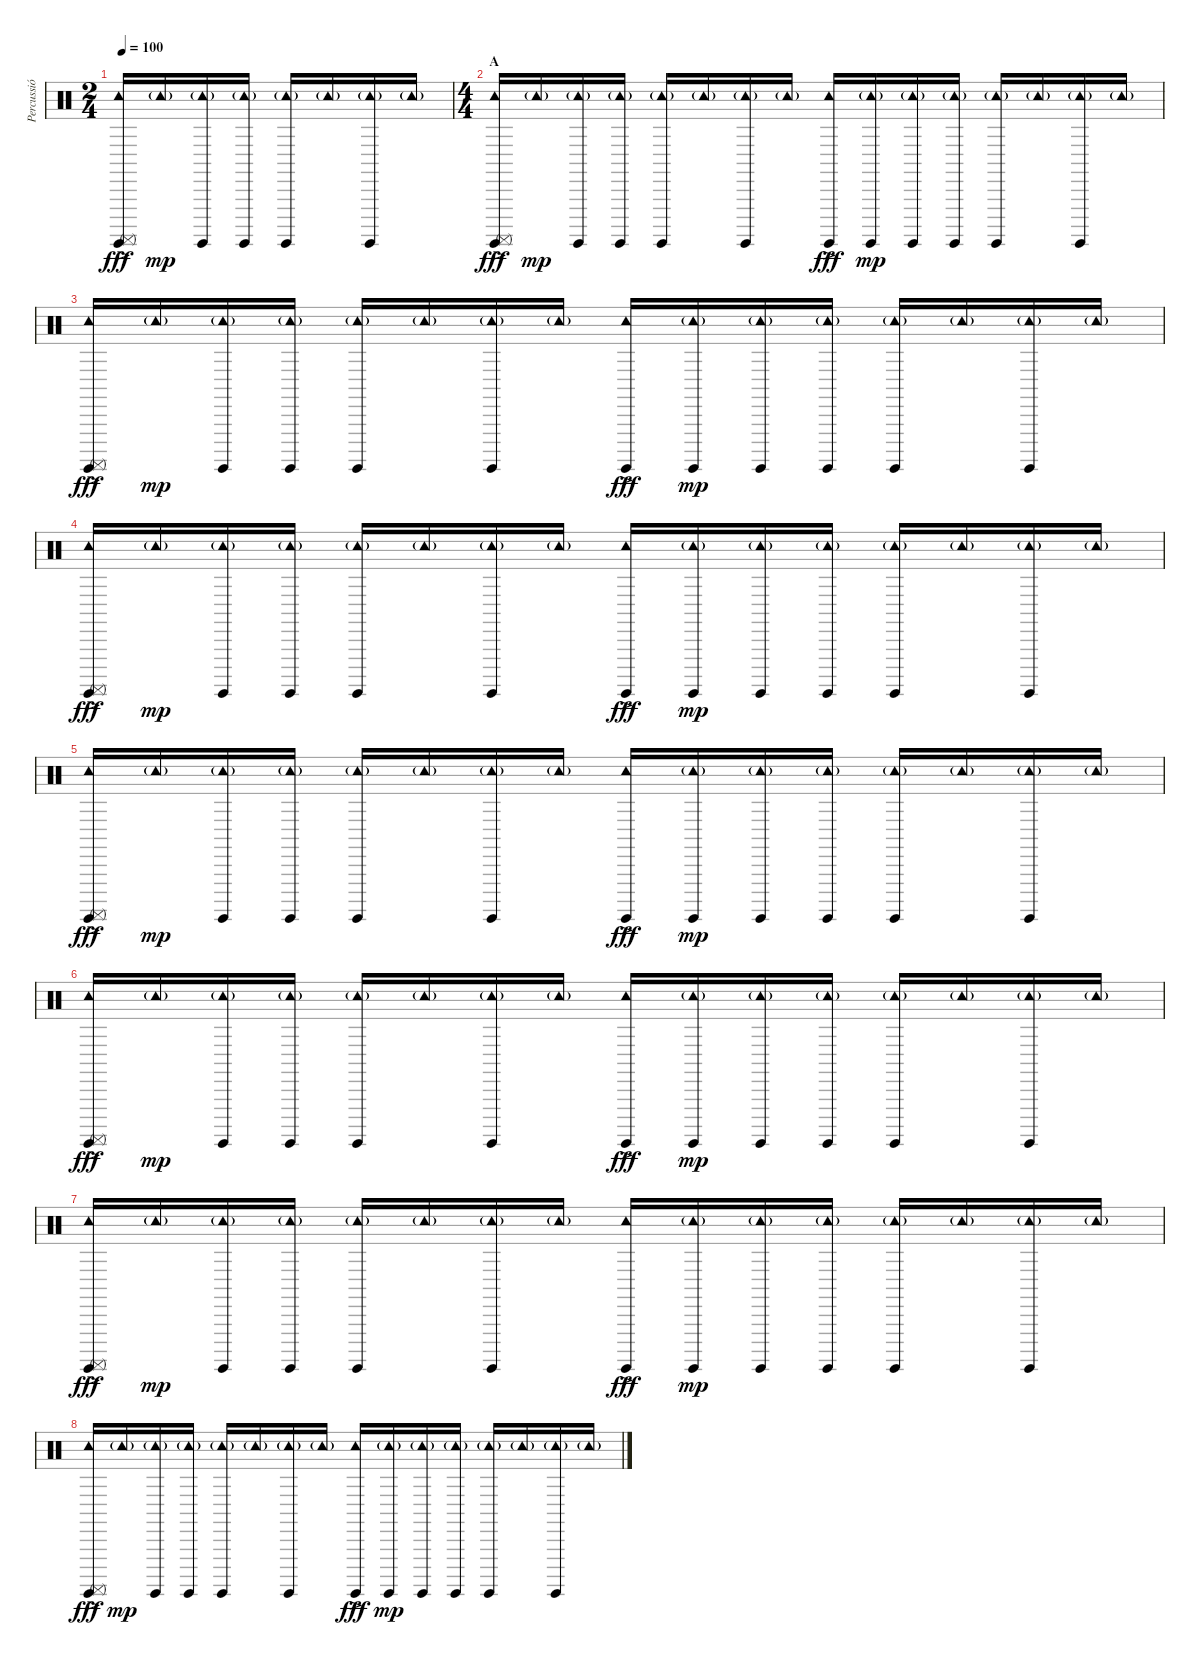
\track ("Percussió" "Percussió") {instrument percussion}
\staff {score}
\articulation defaults
\ts (2 4)
\tempo 100
\clef neutral
\ks c
("Tambourine (hit)"{ac} "Surdo (hit)" "Surdo (mute)"{ac}).16{dy fff} "Tambourine (hit)"{g}.16{dy mp} ("Tambourine (hit)"{g} "Surdo (hit)").16 ("Tambourine (hit)"{g} "Surdo (hit)").16 ("Tambourine (hit)"{g} "Surdo (hit)").16 "Tambourine (hit)"{g}.16 ("Tambourine (hit)"{g} "Surdo (hit)").16 "Tambourine (hit)"{g}.16 |
\ts (4 4)
\section ("" "A")
("Tambourine (hit)"{ac} "Surdo (hit)" "Surdo (mute)"{ac}).16{dy fff} "Tambourine (hit)"{g}.16{dy mp} ("Tambourine (hit)"{g} "Surdo (hit)").16 ("Tambourine (hit)"{g} "Surdo (hit)").16 ("Tambourine (hit)"{g} "Surdo (hit)").16 "Tambourine (hit)"{g}.16 ("Tambourine (hit)"{g} "Surdo (hit)").16 "Tambourine (hit)"{g}.16 ("Tambourine (hit)"{ac} "Surdo (hit)"{ac}).16{dy fff} ("Tambourine (hit)"{g} "Surdo (hit)").16{dy mp} ("Tambourine (hit)"{g} "Surdo (hit)").16 ("Tambourine (hit)"{g} "Surdo (hit)").16 ("Tambourine (hit)"{g} "Surdo (hit)").16 "Tambourine (hit)"{g}.16 ("Tambourine (hit)"{g} "Surdo (hit)").16 "Tambourine (hit)"{g}.16 |
("Tambourine (hit)"{ac} "Surdo (hit)" "Surdo (mute)"{ac}).16{dy fff} "Tambourine (hit)"{g}.16{dy mp} ("Tambourine (hit)"{g} "Surdo (hit)").16 ("Tambourine (hit)"{g} "Surdo (hit)").16 ("Tambourine (hit)"{g} "Surdo (hit)").16 "Tambourine (hit)"{g}.16 ("Tambourine (hit)"{g} "Surdo (hit)").16 "Tambourine (hit)"{g}.16 ("Tambourine (hit)"{ac} "Surdo (hit)"{ac}).16{dy fff} ("Tambourine (hit)"{g} "Surdo (hit)").16{dy mp} ("Tambourine (hit)"{g} "Surdo (hit)").16 ("Tambourine (hit)"{g} "Surdo (hit)").16 ("Tambourine (hit)"{g} "Surdo (hit)").16 "Tambourine (hit)"{g}.16 ("Tambourine (hit)"{g} "Surdo (hit)").16 "Tambourine (hit)"{g}.16 |
("Tambourine (hit)"{ac} "Surdo (hit)" "Surdo (mute)"{ac}).16{dy fff} "Tambourine (hit)"{g}.16{dy mp} ("Tambourine (hit)"{g} "Surdo (hit)").16 ("Tambourine (hit)"{g} "Surdo (hit)").16 ("Tambourine (hit)"{g} "Surdo (hit)").16 "Tambourine (hit)"{g}.16 ("Tambourine (hit)"{g} "Surdo (hit)").16 "Tambourine (hit)"{g}.16 ("Tambourine (hit)"{ac} "Surdo (hit)"{ac}).16{dy fff} ("Tambourine (hit)"{g} "Surdo (hit)").16{dy mp} ("Tambourine (hit)"{g} "Surdo (hit)").16 ("Tambourine (hit)"{g} "Surdo (hit)").16 ("Tambourine (hit)"{g} "Surdo (hit)").16 "Tambourine (hit)"{g}.16 ("Tambourine (hit)"{g} "Surdo (hit)").16 "Tambourine (hit)"{g}.16 |
("Tambourine (hit)"{ac} "Surdo (hit)" "Surdo (mute)"{ac}).16{dy fff} "Tambourine (hit)"{g}.16{dy mp} ("Tambourine (hit)"{g} "Surdo (hit)").16 ("Tambourine (hit)"{g} "Surdo (hit)").16 ("Tambourine (hit)"{g} "Surdo (hit)").16 "Tambourine (hit)"{g}.16 ("Tambourine (hit)"{g} "Surdo (hit)").16 "Tambourine (hit)"{g}.16 ("Tambourine (hit)"{ac} "Surdo (hit)"{ac}).16{dy fff} ("Tambourine (hit)"{g} "Surdo (hit)").16{dy mp} ("Tambourine (hit)"{g} "Surdo (hit)").16 ("Tambourine (hit)"{g} "Surdo (hit)").16 ("Tambourine (hit)"{g} "Surdo (hit)").16 "Tambourine (hit)"{g}.16 ("Tambourine (hit)"{g} "Surdo (hit)").16 "Tambourine (hit)"{g}.16 |
("Tambourine (hit)"{ac} "Surdo (hit)" "Surdo (mute)"{ac}).16{dy fff} "Tambourine (hit)"{g}.16{dy mp} ("Tambourine (hit)"{g} "Surdo (hit)").16 ("Tambourine (hit)"{g} "Surdo (hit)").16 ("Tambourine (hit)"{g} "Surdo (hit)").16 "Tambourine (hit)"{g}.16 ("Tambourine (hit)"{g} "Surdo (hit)").16 "Tambourine (hit)"{g}.16 ("Tambourine (hit)"{ac} "Surdo (hit)"{ac}).16{dy fff} ("Tambourine (hit)"{g} "Surdo (hit)").16{dy mp} ("Tambourine (hit)"{g} "Surdo (hit)").16 ("Tambourine (hit)"{g} "Surdo (hit)").16 ("Tambourine (hit)"{g} "Surdo (hit)").16 "Tambourine (hit)"{g}.16 ("Tambourine (hit)"{g} "Surdo (hit)").16 "Tambourine (hit)"{g}.16 |
("Tambourine (hit)"{ac} "Surdo (hit)" "Surdo (mute)"{ac}).16{dy fff} "Tambourine (hit)"{g}.16{dy mp} ("Tambourine (hit)"{g} "Surdo (hit)").16 ("Tambourine (hit)"{g} "Surdo (hit)").16 ("Tambourine (hit)"{g} "Surdo (hit)").16 "Tambourine (hit)"{g}.16 ("Tambourine (hit)"{g} "Surdo (hit)").16 "Tambourine (hit)"{g}.16 ("Tambourine (hit)"{ac} "Surdo (hit)"{ac}).16{dy fff} ("Tambourine (hit)"{g} "Surdo (hit)").16{dy mp} ("Tambourine (hit)"{g} "Surdo (hit)").16 ("Tambourine (hit)"{g} "Surdo (hit)").16 ("Tambourine (hit)"{g} "Surdo (hit)").16 "Tambourine (hit)"{g}.16 ("Tambourine (hit)"{g} "Surdo (hit)").16 "Tambourine (hit)"{g}.16 |
("Tambourine (hit)"{ac} "Surdo (hit)" "Surdo (mute)"{ac}).16{dy fff} "Tambourine (hit)"{g}.16{dy mp} ("Tambourine (hit)"{g} "Surdo (hit)").16 ("Tambourine (hit)"{g} "Surdo (hit)").16 ("Tambourine (hit)"{g} "Surdo (hit)").16 "Tambourine (hit)"{g}.16 ("Tambourine (hit)"{g} "Surdo (hit)").16 "Tambourine (hit)"{g}.16 ("Tambourine (hit)"{ac} "Surdo (hit)"{ac}).16{dy fff} ("Tambourine (hit)"{g} "Surdo (hit)").16{dy mp} ("Tambourine (hit)"{g} "Surdo (hit)").16 ("Tambourine (hit)"{g} "Surdo (hit)").16 ("Tambourine (hit)"{g} "Surdo (hit)").16 "Tambourine (hit)"{g}.16 ("Tambourine (hit)"{g} "Surdo (hit)").16 "Tambourine (hit)"{g}.16
